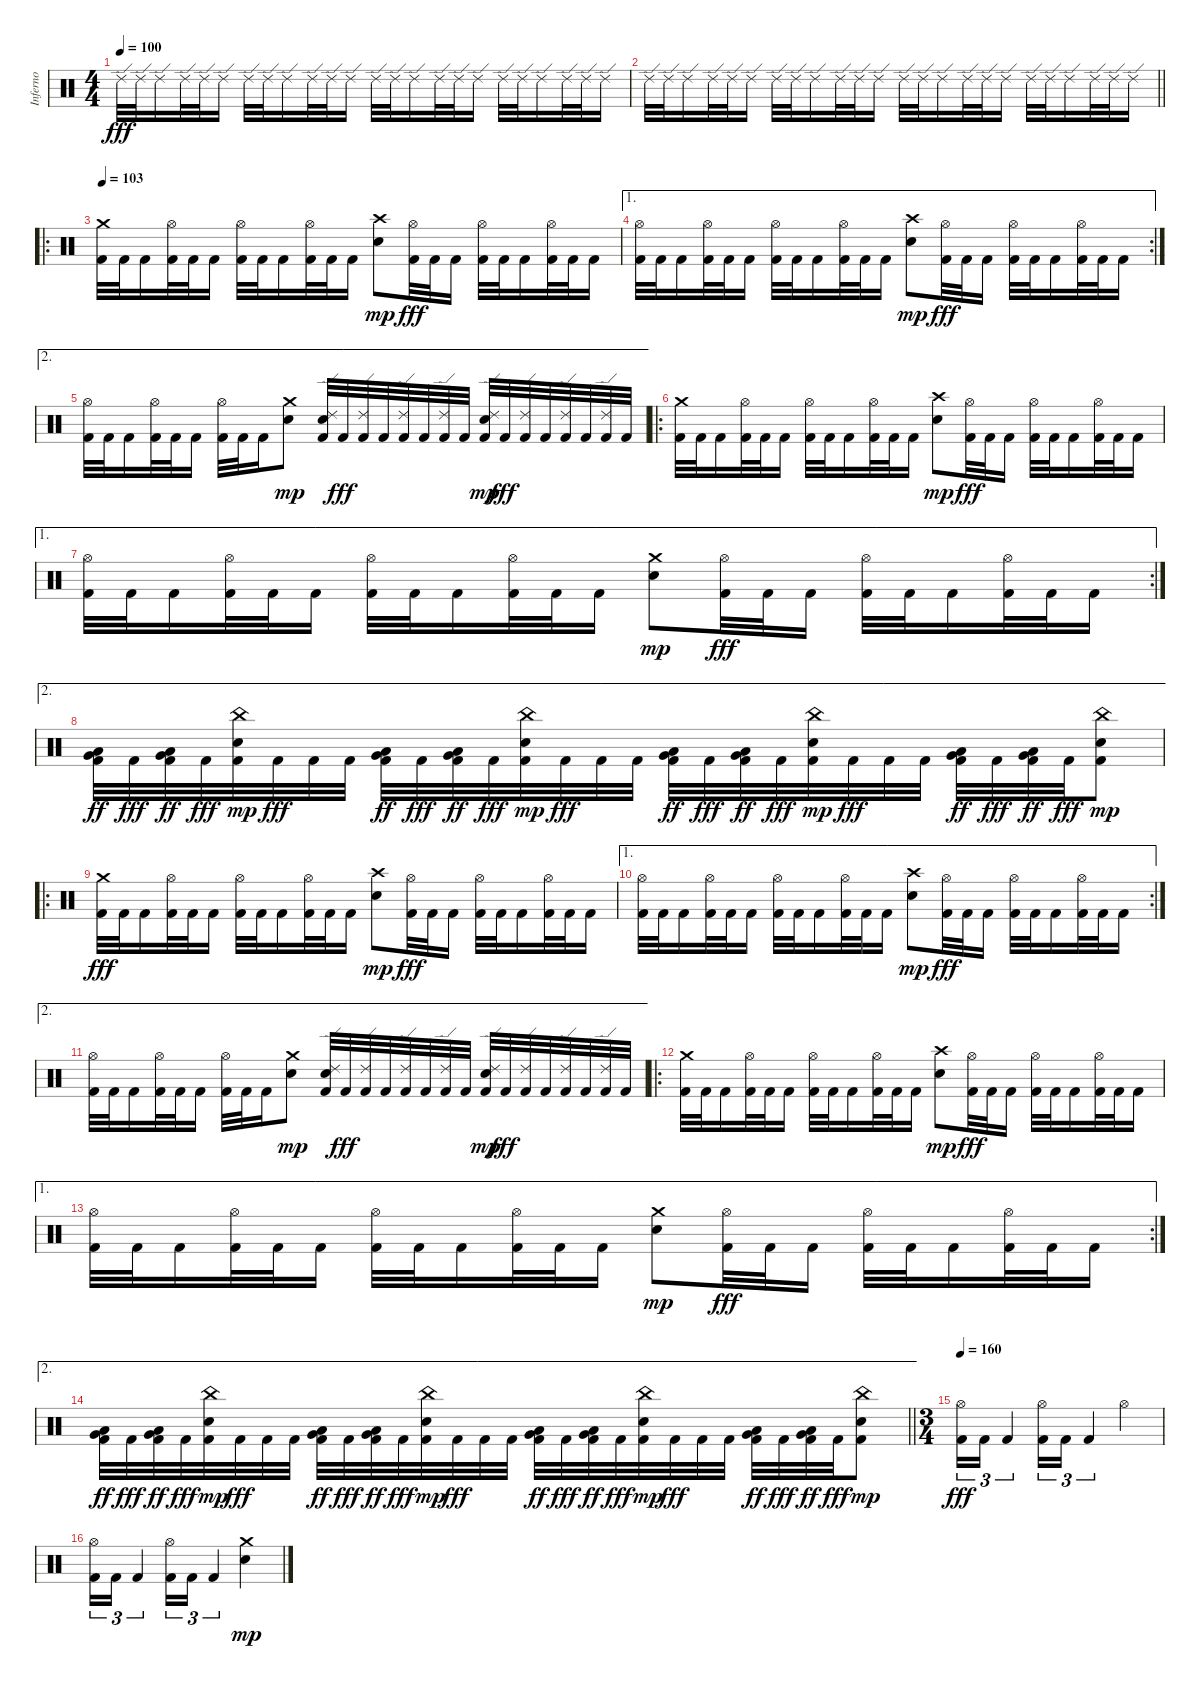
\track ("Inferno" "Inferno") {instrument percussion}
\staff {score}
\articulation defaults
\ts (4 4)
\tempo 100
\clef neutral
\ks c "Ride (edge) 2".32{dy fff} "Ride (edge) 2".32 "Ride (edge) 2".16 "Ride (edge) 2".32 "Ride (edge) 2".32 "Ride (edge) 2".16 "Ride (edge) 2".32 "Ride (edge) 2".32 "Ride (edge) 2".16 "Ride (edge) 2".32 "Ride (edge) 2".32 "Ride (edge) 2".16 "Ride (edge) 2".32 "Ride (edge) 2".32 "Ride (edge) 2".16 "Ride (edge) 2".32 "Ride (edge) 2".32 "Ride (edge) 2".16 "Ride (edge) 2".32 "Ride (edge) 2".32 "Ride (edge) 2".16 "Ride (edge) 2".32 "Ride (edge) 2".32 "Ride (edge) 2".16
|
\barLineRight lightlight "Ride (edge) 2".32 "Ride (edge) 2".32 "Ride (edge) 2".16 "Ride (edge) 2".32 "Ride (edge) 2".32 "Ride (edge) 2".16 "Ride (edge) 2".32 "Ride (edge) 2".32 "Ride (edge) 2".16 "Ride (edge) 2".32 "Ride (edge) 2".32 "Ride (edge) 2".16 "Ride (edge) 2".32 "Ride (edge) 2".32 "Ride (edge) 2".16 "Ride (edge) 2".32 "Ride (edge) 2".32 "Ride (edge) 2".16 "Ride (edge) 2".32 "Ride (edge) 2".32 "Ride (edge) 2".16 "Ride (edge) 2".32 "Ride (edge) 2".32 "Ride (edge) 2".16
|
\ro
\section ("" "")
\tempo 103
("Kick (hit) 2" "Crash medium (hit)").32 "Kick (hit) 2".32 "Kick (hit) 2".16 ("Kick (hit) 2" "Hi-Hat (open)").32 "Kick (hit) 2".32 "Kick (hit) 2".16 ("Kick (hit) 2" "Hi-Hat (open)").32 "Kick (hit) 2".32 "Kick (hit) 2".16 ("Kick (hit) 2" "Hi-Hat (open)").32 "Kick (hit) 2".32 "Kick (hit) 2".16 ("Crash high (hit)" "Electric Snare (hit)").8{dy mp} ("Kick (hit) 2" "Hi-Hat (open)").32{dy fff} "Kick (hit) 2".32 "Kick (hit) 2".16 ("Kick (hit) 2" "Hi-Hat (open)").32 "Kick (hit) 2".32 "Kick (hit) 2".16 ("Kick (hit) 2" "Hi-Hat (open)").32 "Kick (hit) 2".32 "Kick (hit) 2".16 |
\ae 1
\rc 2
("Kick (hit) 2" "Hi-Hat (open)").32 "Kick (hit) 2".32 "Kick (hit) 2".16 ("Kick (hit) 2" "Hi-Hat (open)").32 "Kick (hit) 2".32 "Kick (hit) 2".16 ("Kick (hit) 2" "Hi-Hat (open)").32 "Kick (hit) 2".32 "Kick (hit) 2".16 ("Kick (hit) 2" "Hi-Hat (open)").32 "Kick (hit) 2".32 "Kick (hit) 2".16 ("Crash high (hit)" "Electric Snare (hit)").8{dy mp} ("Kick (hit) 2" "Hi-Hat (open)").32{dy fff} "Kick (hit) 2".32 "Kick (hit) 2".16 ("Kick (hit) 2" "Hi-Hat (open)").32 "Kick (hit) 2".32 "Kick (hit) 2".16 ("Kick (hit) 2" "Hi-Hat (open)").32 "Kick (hit) 2".32 "Kick (hit) 2".16 |
\ae 2
("Kick (hit) 2" "Hi-Hat (open)").32 "Kick (hit) 2".32 "Kick (hit) 2".16 ("Kick (hit) 2" "Hi-Hat (open)").32 "Kick (hit) 2".32 "Kick (hit) 2".16 ("Kick (hit) 2" "Hi-Hat (open)").32 "Kick (hit) 2".32 "Kick (hit) 2".16 ("Crash medium (hit)" "Electric Snare (hit)").8{dy mp} ("Kick (hit) 2" "Ride (edge) 2" "Electric Snare (hit)").32 "Kick (hit) 2".32{dy fff} ("Kick (hit) 2" "Ride (edge) 2").32 "Kick (hit) 2".32 ("Kick (hit) 2" "Ride (edge) 2").32 "Kick (hit) 2".32 ("Kick (hit) 2" "Ride (edge) 2").32 "Kick (hit) 2".32 ("Kick (hit) 2" "Ride (edge) 2" "Electric Snare (hit)").32{dy mp} "Kick (hit) 2".32{dy fff} ("Kick (hit) 2" "Ride (edge) 2").32 "Kick (hit) 2".32 ("Kick (hit) 2" "Ride (edge) 2").32 "Kick (hit) 2".32 ("Kick (hit) 2" "Ride (edge) 2").32 "Kick (hit) 2".32 |
\ro
("Kick (hit) 2" "Crash medium (hit)").32 "Kick (hit) 2".32 "Kick (hit) 2".16 ("Kick (hit) 2" "Hi-Hat (open)").32 "Kick (hit) 2".32 "Kick (hit) 2".16 ("Kick (hit) 2" "Hi-Hat (open)").32 "Kick (hit) 2".32 "Kick (hit) 2".16 ("Kick (hit) 2" "Hi-Hat (open)").32 "Kick (hit) 2".32 "Kick (hit) 2".16 ("Crash high (hit)" "Electric Snare (hit)").8{dy mp} ("Kick (hit) 2" "Hi-Hat (open)").32{dy fff} "Kick (hit) 2".32 "Kick (hit) 2".16 ("Kick (hit) 2" "Hi-Hat (open)").32 "Kick (hit) 2".32 "Kick (hit) 2".16 ("Kick (hit) 2" "Hi-Hat (open)").32 "Kick (hit) 2".32 "Kick (hit) 2".16 |
\ae 1
\rc 2
("Kick (hit) 2" "Hi-Hat (open)").32 "Kick (hit) 2".32 "Kick (hit) 2".16 ("Kick (hit) 2" "Hi-Hat (open)").32 "Kick (hit) 2".32 "Kick (hit) 2".16 ("Kick (hit) 2" "Hi-Hat (open)").32 "Kick (hit) 2".32 "Kick (hit) 2".16 ("Kick (hit) 2" "Hi-Hat (open)").32 "Kick (hit) 2".32 "Kick (hit) 2".16 ("Crash medium (hit)" "Electric Snare (hit)").8{dy mp} ("Kick (hit) 2" "Hi-Hat (open)").32{dy fff} "Kick (hit) 2".32 "Kick (hit) 2".16 ("Kick (hit) 2" "Hi-Hat (open)").32 "Kick (hit) 2".32 "Kick (hit) 2".16 ("Kick (hit) 2" "Hi-Hat (open)").32 "Kick (hit) 2".32 "Kick (hit) 2".16 |
\ae 2
("Kick (hit) 2" "Low Tom (hit)" "Very Low Tom (hit)").32{dy ff} "Kick (hit) 2".32{dy fff} ("Kick (hit) 2" "Low Tom (hit)" "Very Low Tom (hit)").32{dy ff} "Kick (hit) 2".32{dy fff} ("Kick (hit) 2" "China (hit)" "Electric Snare (hit)").32{dy mp} "Kick (hit) 2".32{dy fff} "Kick (hit) 2".32 "Kick (hit) 2".32 ("Kick (hit) 2" "Low Tom (hit)" "Very Low Tom (hit)").32{dy ff} "Kick (hit) 2".32{dy fff} ("Kick (hit) 2" "Low Tom (hit)" "Very Low Tom (hit)").32{dy ff} "Kick (hit) 2".32{dy fff} ("Kick (hit) 2" "China (hit)" "Electric Snare (hit)").32{dy mp} "Kick (hit) 2".32{dy fff} "Kick (hit) 2".32 "Kick (hit) 2".32 ("Kick (hit) 2" "Low Tom (hit)" "Very Low Tom (hit)").32{dy ff} "Kick (hit) 2".32{dy fff} ("Kick (hit) 2" "Low Tom (hit)" "Very Low Tom (hit)").32{dy ff} "Kick (hit) 2".32{dy fff} ("Kick (hit) 2" "China (hit)" "Electric Snare (hit)").32{dy mp} "Kick (hit) 2".32{dy fff} "Kick (hit) 2".32 "Kick (hit) 2".32 ("Kick (hit) 2" "Low Tom (hit)" "Very Low Tom (hit)").32{dy ff} "Kick (hit) 2".32{dy fff} ("Kick (hit) 2" "Low Tom (hit)" "Very Low Tom (hit)").32{dy ff} "Kick (hit) 2".32{dy fff} ("Kick (hit) 2" "China (hit)" "Electric Snare (hit)").8{dy mp} |
\ro
("Kick (hit) 2" "Crash medium (hit)").32{dy fff} "Kick (hit) 2".32 "Kick (hit) 2".16 ("Kick (hit) 2" "Hi-Hat (open)").32 "Kick (hit) 2".32 "Kick (hit) 2".16 ("Kick (hit) 2" "Hi-Hat (open)").32 "Kick (hit) 2".32 "Kick (hit) 2".16 ("Kick (hit) 2" "Hi-Hat (open)").32 "Kick (hit) 2".32 "Kick (hit) 2".16 ("Crash high (hit)" "Electric Snare (hit)").8{dy mp} ("Kick (hit) 2" "Hi-Hat (open)").32{dy fff} "Kick (hit) 2".32 "Kick (hit) 2".16 ("Kick (hit) 2" "Hi-Hat (open)").32 "Kick (hit) 2".32 "Kick (hit) 2".16 ("Kick (hit) 2" "Hi-Hat (open)").32 "Kick (hit) 2".32 "Kick (hit) 2".16 |
\ae 1
\rc 2
("Kick (hit) 2" "Hi-Hat (open)").32 "Kick (hit) 2".32 "Kick (hit) 2".16 ("Kick (hit) 2" "Hi-Hat (open)").32 "Kick (hit) 2".32 "Kick (hit) 2".16 ("Kick (hit) 2" "Hi-Hat (open)").32 "Kick (hit) 2".32 "Kick (hit) 2".16 ("Kick (hit) 2" "Hi-Hat (open)").32 "Kick (hit) 2".32 "Kick (hit) 2".16 ("Crash high (hit)" "Electric Snare (hit)").8{dy mp} ("Kick (hit) 2" "Hi-Hat (open)").32{dy fff} "Kick (hit) 2".32 "Kick (hit) 2".16 ("Kick (hit) 2" "Hi-Hat (open)").32 "Kick (hit) 2".32 "Kick (hit) 2".16 ("Kick (hit) 2" "Hi-Hat (open)").32 "Kick (hit) 2".32 "Kick (hit) 2".16 |
\ae 2
("Kick (hit) 2" "Hi-Hat (open)").32 "Kick (hit) 2".32 "Kick (hit) 2".16 ("Kick (hit) 2" "Hi-Hat (open)").32 "Kick (hit) 2".32 "Kick (hit) 2".16 ("Kick (hit) 2" "Hi-Hat (open)").32 "Kick (hit) 2".32 "Kick (hit) 2".16 ("Crash medium (hit)" "Electric Snare (hit)").8{dy mp} ("Kick (hit) 2" "Ride (edge) 2" "Electric Snare (hit)").32 "Kick (hit) 2".32{dy fff} ("Kick (hit) 2" "Ride (edge) 2").32 "Kick (hit) 2".32 ("Kick (hit) 2" "Ride (edge) 2").32 "Kick (hit) 2".32 ("Kick (hit) 2" "Ride (edge) 2").32 "Kick (hit) 2".32 ("Kick (hit) 2" "Ride (edge) 2" "Electric Snare (hit)").32{dy mp} "Kick (hit) 2".32{dy fff} ("Kick (hit) 2" "Ride (edge) 2").32 "Kick (hit) 2".32 ("Kick (hit) 2" "Ride (edge) 2").32 "Kick (hit) 2".32 ("Kick (hit) 2" "Ride (edge) 2").32 "Kick (hit) 2".32 |
\ro
("Kick (hit) 2" "Crash medium (hit)").32 "Kick (hit) 2".32 "Kick (hit) 2".16 ("Kick (hit) 2" "Hi-Hat (open)").32 "Kick (hit) 2".32 "Kick (hit) 2".16 ("Kick (hit) 2" "Hi-Hat (open)").32 "Kick (hit) 2".32 "Kick (hit) 2".16 ("Kick (hit) 2" "Hi-Hat (open)").32 "Kick (hit) 2".32 "Kick (hit) 2".16 ("Crash high (hit)" "Electric Snare (hit)").8{dy mp} ("Kick (hit) 2" "Hi-Hat (open)").32{dy fff} "Kick (hit) 2".32 "Kick (hit) 2".16 ("Kick (hit) 2" "Hi-Hat (open)").32 "Kick (hit) 2".32 "Kick (hit) 2".16 ("Kick (hit) 2" "Hi-Hat (open)").32 "Kick (hit) 2".32 "Kick (hit) 2".16 |
\ae 1
\rc 2
("Kick (hit) 2" "Hi-Hat (open)").32 "Kick (hit) 2".32 "Kick (hit) 2".16 ("Kick (hit) 2" "Hi-Hat (open)").32 "Kick (hit) 2".32 "Kick (hit) 2".16 ("Kick (hit) 2" "Hi-Hat (open)").32 "Kick (hit) 2".32 "Kick (hit) 2".16 ("Kick (hit) 2" "Hi-Hat (open)").32 "Kick (hit) 2".32 "Kick (hit) 2".16 ("Crash medium (hit)" "Electric Snare (hit)").8{dy mp} ("Kick (hit) 2" "Hi-Hat (open)").32{dy fff} "Kick (hit) 2".32 "Kick (hit) 2".16 ("Kick (hit) 2" "Hi-Hat (open)").32 "Kick (hit) 2".32 "Kick (hit) 2".16 ("Kick (hit) 2" "Hi-Hat (open)").32 "Kick (hit) 2".32 "Kick (hit) 2".16 |
\ae 2
\barLineRight lightlight
("Kick (hit) 2" "Low Tom (hit)" "Very Low Tom (hit)").32{dy ff} "Kick (hit) 2".32{dy fff} ("Kick (hit) 2" "Low Tom (hit)" "Very Low Tom (hit)").32{dy ff} "Kick (hit) 2".32{dy fff} ("Kick (hit) 2" "China (hit)" "Electric Snare (hit)").32{dy mp} "Kick (hit) 2".32{dy fff} "Kick (hit) 2".32 "Kick (hit) 2".32 ("Kick (hit) 2" "Low Tom (hit)" "Very Low Tom (hit)").32{dy ff} "Kick (hit) 2".32{dy fff} ("Kick (hit) 2" "Low Tom (hit)" "Very Low Tom (hit)").32{dy ff} "Kick (hit) 2".32{dy fff} ("Kick (hit) 2" "China (hit)" "Electric Snare (hit)").32{dy mp} "Kick (hit) 2".32{dy fff} "Kick (hit) 2".32 "Kick (hit) 2".32 ("Kick (hit) 2" "Low Tom (hit)" "Very Low Tom (hit)").32{dy ff} "Kick (hit) 2".32{dy fff} ("Kick (hit) 2" "Low Tom (hit)" "Very Low Tom (hit)").32{dy ff} "Kick (hit) 2".32{dy fff} ("Kick (hit) 2" "China (hit)" "Electric Snare (hit)").32{dy mp} "Kick (hit) 2".32{dy fff} "Kick (hit) 2".32 "Kick (hit) 2".32 ("Kick (hit) 2" "Low Tom (hit)" "Very Low Tom (hit)").32{dy ff} "Kick (hit) 2".32{dy fff} ("Kick (hit) 2" "Low Tom (hit)" "Very Low Tom (hit)").32{dy ff} "Kick (hit) 2".32{dy fff} ("Kick (hit) 2" "China (hit)" "Electric Snare (hit)").8{dy mp} |
\ts (3 4)
\section ("" "")
\tempo 160
("Kick (hit) 2" "Hi-Hat (open)").16{tu (3 2) dy fff} "Kick (hit) 2".16{tu (3 2)} "Kick (hit) 2".4{tu (3 2)} ("Kick (hit) 2" "Hi-Hat (open)").16{tu (3 2)} "Kick (hit) 2".16{tu (3 2)} "Kick (hit) 2".4{tu (3 2)} "Hi-Hat (open)".4 |
("Kick (hit) 2" "Hi-Hat (open)").16{tu (3 2)} "Kick (hit) 2".16{tu (3 2)} "Kick (hit) 2".4{tu (3 2)} ("Kick (hit) 2" "Hi-Hat (open)").16{tu (3 2)} "Kick (hit) 2".16{tu (3 2)} "Kick (hit) 2".4{tu (3 2)} ("Crash medium (hit)" "Electric Snare (hit)").4{dy mp}
